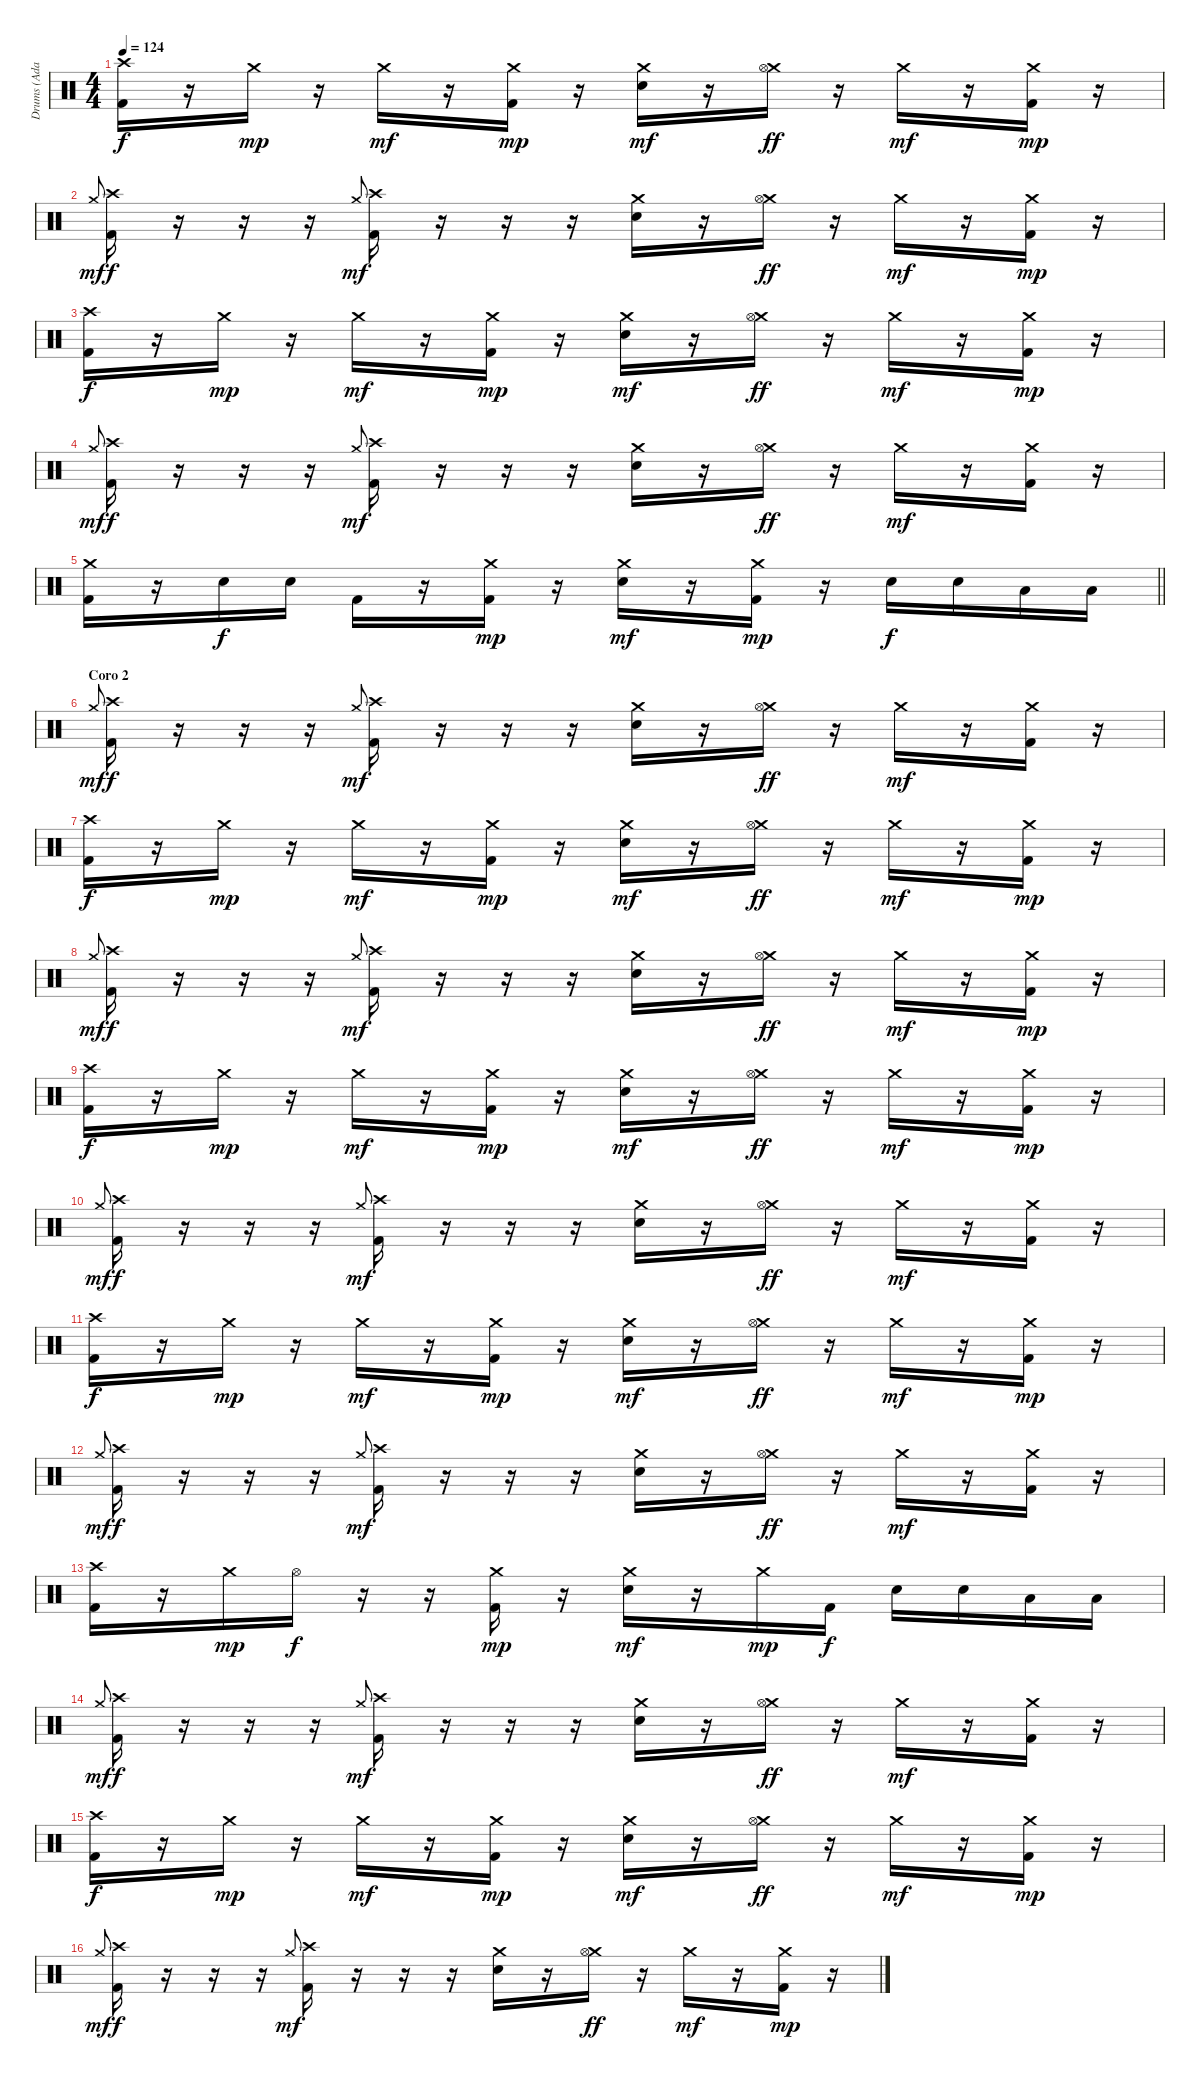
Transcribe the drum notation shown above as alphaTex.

\track ("Drums (Adam Morgan)" "Drums (Ada") {instrument percussion}
\staff {score}
\articulation defaults
\ts (4 4)
\tempo 124
\clef neutral
\ks c
("Crash high (hit)" "Kick (hit) 2").16{dy f} r.16 "Crash medium (hit)".16{dy mp} r.16 "Crash medium (hit)".16{dy mf} r.16 ("Crash medium (hit)" "Kick (hit) 2").16{dy mp} r.16 ("Crash medium (hit)" "Snare (hit) 2").16{dy mf} r.16 ("Crash medium (hit)" "Hi-Hat (open)").16{dy ff} r.16 "Crash medium (hit)".16{dy mf} r.16 ("Crash medium (hit)" "Kick (hit) 2").16{dy mp} r.16 |
"Crash medium (hit)".8{gr onbeat dy mf} ("Crash high (hit)" "Kick (hit) 2").16{dy f} r.16 r.16 r.16 "Crash medium (hit)".8{gr onbeat dy mf} ("Crash high (hit)" "Kick (hit) 2").16 r.16 r.16 r.16 ("Crash medium (hit)" "Snare (hit) 2").16 r.16 ("Crash medium (hit)" "Hi-Hat (open)").16{dy ff} r.16 "Crash medium (hit)".16{dy mf} r.16 ("Crash medium (hit)" "Kick (hit) 2").16{dy mp} r.16 |
("Crash high (hit)" "Kick (hit) 2").16{dy f} r.16 "Crash medium (hit)".16{dy mp} r.16 "Crash medium (hit)".16{dy mf} r.16 ("Crash medium (hit)" "Kick (hit) 2").16{dy mp} r.16 ("Crash medium (hit)" "Snare (hit) 2").16{dy mf} r.16 ("Crash medium (hit)" "Hi-Hat (open)").16{dy ff} r.16 "Crash medium (hit)".16{dy mf} r.16 ("Crash medium (hit)" "Kick (hit) 2").16{dy mp} r.16 |
"Crash medium (hit)".8{gr onbeat dy mf} ("Crash high (hit)" "Kick (hit) 2").16{dy f} r.16 r.16 r.16 "Crash medium (hit)".8{gr onbeat dy mf} ("Crash high (hit)" "Kick (hit) 2").16 r.16 r.16 r.16 ("Crash medium (hit)" "Snare (hit) 2").16 r.16 ("Crash medium (hit)" "Hi-Hat (open)").16{dy ff} r.16 "Crash medium (hit)".16{dy mf} r.16 ("Crash medium (hit)" "Kick (hit) 2").16 r.16 |
\barLineRight lightlight
("Crash medium (hit)" "Kick (hit) 2").16 r.16 "Snare (hit) 2".16{dy f} "Snare (hit) 2".16 "Kick (hit) 2".16 r.16 ("Crash medium (hit)" "Kick (hit) 2").16{dy mp} r.16 ("Crash medium (hit)" "Snare (hit) 2").16{dy mf} r.16 ("Crash medium (hit)" "Kick (hit) 2").16{dy mp} r.16 "Snare (hit) 2".16{dy f} "Snare (hit) 2".16 "Low Tom (hit)".16 "Low Tom (hit)".16 |
\section ("" "Coro 2")
"Crash medium (hit)".8{gr onbeat dy mf} ("Crash high (hit)" "Kick (hit) 2").16{dy f} r.16 r.16 r.16 "Crash medium (hit)".8{gr onbeat dy mf} ("Crash high (hit)" "Kick (hit) 2").16 r.16 r.16 r.16 ("Crash medium (hit)" "Snare (hit) 2").16 r.16 ("Crash medium (hit)" "Hi-Hat (open)").16{dy ff} r.16 "Crash medium (hit)".16{dy mf} r.16 ("Crash medium (hit)" "Kick (hit) 2").16 r.16 |
("Crash high (hit)" "Kick (hit) 2").16{dy f} r.16 "Crash medium (hit)".16{dy mp} r.16 "Crash medium (hit)".16{dy mf} r.16 ("Crash medium (hit)" "Kick (hit) 2").16{dy mp} r.16 ("Crash medium (hit)" "Snare (hit) 2").16{dy mf} r.16 ("Crash medium (hit)" "Hi-Hat (open)").16{dy ff} r.16 "Crash medium (hit)".16{dy mf} r.16 ("Crash medium (hit)" "Kick (hit) 2").16{dy mp} r.16 |
"Crash medium (hit)".8{gr onbeat dy mf} ("Crash high (hit)" "Kick (hit) 2").16{dy f} r.16 r.16 r.16 "Crash medium (hit)".8{gr onbeat dy mf} ("Crash high (hit)" "Kick (hit) 2").16 r.16 r.16 r.16 ("Crash medium (hit)" "Snare (hit) 2").16 r.16 ("Crash medium (hit)" "Hi-Hat (open)").16{dy ff} r.16 "Crash medium (hit)".16{dy mf} r.16 ("Crash medium (hit)" "Kick (hit) 2").16{dy mp} r.16 |
("Crash high (hit)" "Kick (hit) 2").16{dy f} r.16 "Crash medium (hit)".16{dy mp} r.16 "Crash medium (hit)".16{dy mf} r.16 ("Crash medium (hit)" "Kick (hit) 2").16{dy mp} r.16 ("Crash medium (hit)" "Snare (hit) 2").16{dy mf} r.16 ("Crash medium (hit)" "Hi-Hat (open)").16{dy ff} r.16 "Crash medium (hit)".16{dy mf} r.16 ("Crash medium (hit)" "Kick (hit) 2").16{dy mp} r.16 |
"Crash medium (hit)".8{gr onbeat dy mf} ("Crash high (hit)" "Kick (hit) 2").16{dy f} r.16 r.16 r.16 "Crash medium (hit)".8{gr onbeat dy mf} ("Crash high (hit)" "Kick (hit) 2").16 r.16 r.16 r.16 ("Crash medium (hit)" "Snare (hit) 2").16 r.16 ("Crash medium (hit)" "Hi-Hat (open)").16{dy ff} r.16 "Crash medium (hit)".16{dy mf} r.16 ("Crash medium (hit)" "Kick (hit) 2").16 r.16 |
("Crash high (hit)" "Kick (hit) 2").16{dy f} r.16 "Crash medium (hit)".16{dy mp} r.16 "Crash medium (hit)".16{dy mf} r.16 ("Crash medium (hit)" "Kick (hit) 2").16{dy mp} r.16 ("Crash medium (hit)" "Snare (hit) 2").16{dy mf} r.16 ("Crash medium (hit)" "Hi-Hat (open)").16{dy ff} r.16 "Crash medium (hit)".16{dy mf} r.16 ("Crash medium (hit)" "Kick (hit) 2").16{dy mp} r.16 |
"Crash medium (hit)".8{gr onbeat dy mf} ("Crash high (hit)" "Kick (hit) 2").16{dy f} r.16 r.16 r.16 "Crash medium (hit)".8{gr onbeat dy mf} ("Crash high (hit)" "Kick (hit) 2").16 r.16 r.16 r.16 ("Crash medium (hit)" "Snare (hit) 2").16 r.16 ("Crash medium (hit)" "Hi-Hat (open)").16{dy ff} r.16 "Crash medium (hit)".16{dy mf} r.16 ("Crash medium (hit)" "Kick (hit) 2").16 r.16 |
("Crash high (hit)" "Kick (hit) 2").16 r.16 "Crash medium (hit)".16{dy mp} "Hi-Hat (open)".16{dy f} r.16 r.16 ("Crash medium (hit)" "Kick (hit) 2").16{dy mp} r.16 ("Crash medium (hit)" "Snare (hit) 2").16{dy mf} r.16 "Crash medium (hit)".16{dy mp} "Kick (hit) 2".16{dy f} "Snare (hit) 2".16 "Snare (hit) 2".16 "Low Tom (hit)".16 "Low Tom (hit)".16 |
"Crash medium (hit)".8{gr onbeat dy mf} ("Crash high (hit)" "Kick (hit) 2").16{dy f} r.16 r.16 r.16 "Crash medium (hit)".8{gr onbeat dy mf} ("Crash high (hit)" "Kick (hit) 2").16 r.16 r.16 r.16 ("Crash medium (hit)" "Snare (hit) 2").16 r.16 ("Crash medium (hit)" "Hi-Hat (open)").16{dy ff} r.16 "Crash medium (hit)".16{dy mf} r.16 ("Crash medium (hit)" "Kick (hit) 2").16 r.16 |
("Crash high (hit)" "Kick (hit) 2").16{dy f} r.16 "Crash medium (hit)".16{dy mp} r.16 "Crash medium (hit)".16{dy mf} r.16 ("Crash medium (hit)" "Kick (hit) 2").16{dy mp} r.16 ("Crash medium (hit)" "Snare (hit) 2").16{dy mf} r.16 ("Crash medium (hit)" "Hi-Hat (open)").16{dy ff} r.16 "Crash medium (hit)".16{dy mf} r.16 ("Crash medium (hit)" "Kick (hit) 2").16{dy mp} r.16 |
"Crash medium (hit)".8{gr onbeat dy mf} ("Crash high (hit)" "Kick (hit) 2").16{dy f} r.16 r.16 r.16 "Crash medium (hit)".8{gr onbeat dy mf} ("Crash high (hit)" "Kick (hit) 2").16 r.16 r.16 r.16 ("Crash medium (hit)" "Snare (hit) 2").16 r.16 ("Crash medium (hit)" "Hi-Hat (open)").16{dy ff} r.16 "Crash medium (hit)".16{dy mf} r.16 ("Crash medium (hit)" "Kick (hit) 2").16{dy mp} r.16
